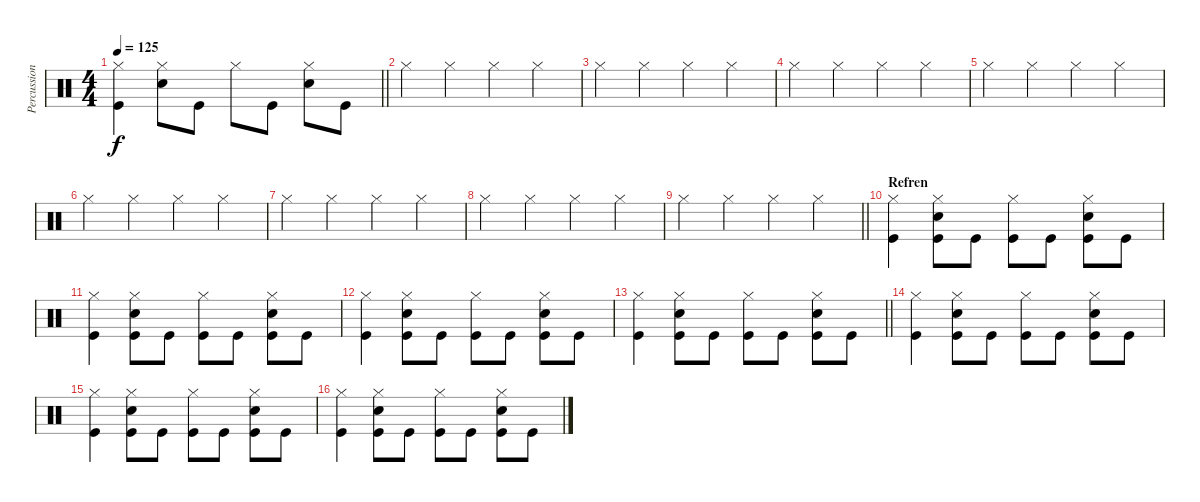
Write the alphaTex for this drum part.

\track ("Percussion" "Percussion") {instrument percussion}
\staff {score}
\articulation defaults
\ts (4 4)
\tempo 125
\clef neutral
\barLineRight lightlight
\ks c
("Hi-Hat (closed)" "Kick (hit)").4{dy f} ("Hi-Hat (closed)" "Snare (hit) 2").8 "Kick (hit)".8 "Hi-Hat (closed)".8 "Kick (hit)".8 ("Hi-Hat (closed)" "Snare (hit) 2").8 "Kick (hit)".8 |
"Hi-Hat (closed)".4 "Hi-Hat (closed)".4 "Hi-Hat (closed)".4 "Hi-Hat (closed)".4 |
"Hi-Hat (closed)".4 "Hi-Hat (closed)".4 "Hi-Hat (closed)".4 "Hi-Hat (closed)".4 |
"Hi-Hat (closed)".4 "Hi-Hat (closed)".4 "Hi-Hat (closed)".4 "Hi-Hat (closed)".4 |
"Hi-Hat (closed)".4 "Hi-Hat (closed)".4 "Hi-Hat (closed)".4 "Hi-Hat (closed)".4 |
"Hi-Hat (closed)".4 "Hi-Hat (closed)".4 "Hi-Hat (closed)".4 "Hi-Hat (closed)".4 |
"Hi-Hat (closed)".4 "Hi-Hat (closed)".4 "Hi-Hat (closed)".4 "Hi-Hat (closed)".4 |
"Hi-Hat (closed)".4 "Hi-Hat (closed)".4 "Hi-Hat (closed)".4 "Hi-Hat (closed)".4 |
\barLineRight lightlight "Hi-Hat (closed)".4 "Hi-Hat (closed)".4 "Hi-Hat (closed)".4 "Hi-Hat (closed)".4
|
\section ("" "Refren")
("Hi-Hat (closed)" "Kick (hit)").4 ("Hi-Hat (closed)" "Kick (hit)" "Snare (hit) 2").8 "Kick (hit)".8 ("Hi-Hat (closed)" "Kick (hit)").8 "Kick (hit)".8 ("Hi-Hat (closed)" "Kick (hit)" "Snare (hit) 2").8 "Kick (hit)".8 |
("Hi-Hat (closed)" "Kick (hit)").4 ("Hi-Hat (closed)" "Kick (hit)" "Snare (hit) 2").8 "Kick (hit)".8 ("Hi-Hat (closed)" "Kick (hit)").8 "Kick (hit)".8 ("Hi-Hat (closed)" "Kick (hit)" "Snare (hit) 2").8 "Kick (hit)".8 |
("Hi-Hat (closed)" "Kick (hit)").4 ("Hi-Hat (closed)" "Kick (hit)" "Snare (hit) 2").8 "Kick (hit)".8 ("Hi-Hat (closed)" "Kick (hit)").8 "Kick (hit)".8 ("Hi-Hat (closed)" "Kick (hit)" "Snare (hit) 2").8 "Kick (hit)".8 |
\barLineRight lightlight
("Hi-Hat (closed)" "Kick (hit)").4 ("Hi-Hat (closed)" "Kick (hit)" "Snare (hit) 2").8 "Kick (hit)".8 ("Hi-Hat (closed)" "Kick (hit)").8 "Kick (hit)".8 ("Hi-Hat (closed)" "Kick (hit)" "Snare (hit) 2").8 "Kick (hit)".8 |
("Hi-Hat (closed)" "Kick (hit)").4 ("Hi-Hat (closed)" "Kick (hit)" "Snare (hit) 2").8 "Kick (hit)".8 ("Hi-Hat (closed)" "Kick (hit)").8 "Kick (hit)".8 ("Hi-Hat (closed)" "Kick (hit)" "Snare (hit) 2").8 "Kick (hit)".8 |
("Hi-Hat (closed)" "Kick (hit)").4 ("Hi-Hat (closed)" "Kick (hit)" "Snare (hit) 2").8 "Kick (hit)".8 ("Hi-Hat (closed)" "Kick (hit)").8 "Kick (hit)".8 ("Hi-Hat (closed)" "Kick (hit)" "Snare (hit) 2").8 "Kick (hit)".8 |
("Hi-Hat (closed)" "Kick (hit)").4 ("Hi-Hat (closed)" "Kick (hit)" "Snare (hit) 2").8 "Kick (hit)".8 ("Hi-Hat (closed)" "Kick (hit)").8 "Kick (hit)".8 ("Hi-Hat (closed)" "Kick (hit)" "Snare (hit) 2").8 "Kick (hit)".8
